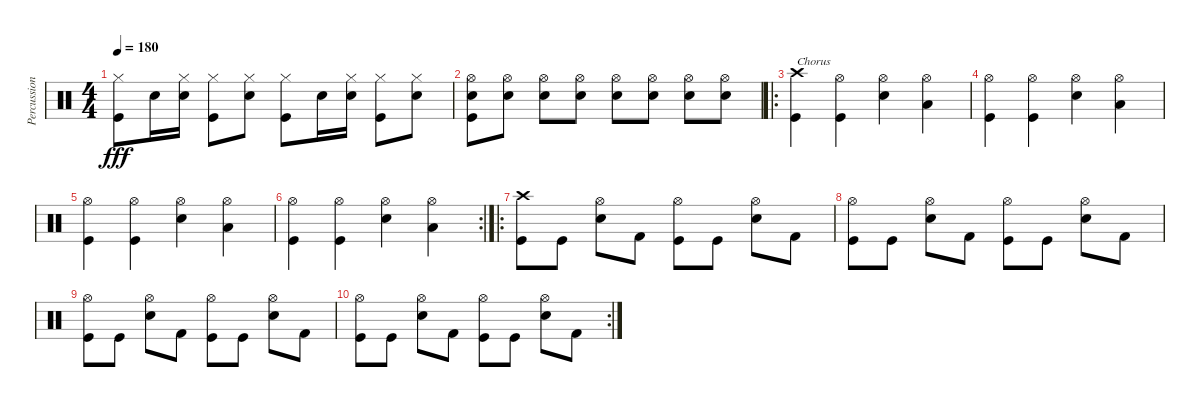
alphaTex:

\track ("Percussions" "Percussion") {instrument percussion}
\staff {score}
\articulation defaults
\ts (4 4)
\tempo 180
\clef neutral
\ks c
("Hi-Hat (closed)" "Kick (hit)").8{dy fff} "Electric Snare (hit)".16 ("Hi-Hat (closed)" "Electric Snare (hit)").16 ("Hi-Hat (closed)" "Kick (hit)").8 ("Hi-Hat (closed)" "Electric Snare (hit)").8 ("Hi-Hat (closed)" "Kick (hit)").8 "Electric Snare (hit)".16 ("Hi-Hat (closed)" "Electric Snare (hit)").16 ("Hi-Hat (closed)" "Kick (hit)").8 ("Hi-Hat (closed)" "Electric Snare (hit)").8 |
("Hi-Hat (open)" "Electric Snare (hit)" "Kick (hit)").8 ("Hi-Hat (open)" "Electric Snare (hit)").8 ("Hi-Hat (open)" "Electric Snare (hit)").8 ("Hi-Hat (open)" "Electric Snare (hit)").8 ("Hi-Hat (open)" "Electric Snare (hit)").8 ("Hi-Hat (open)" "Electric Snare (hit)").8 ("Hi-Hat (open)" "Electric Snare (hit)").8 ("Hi-Hat (open)" "Electric Snare (hit)").8 |
\ro
("Crash high (hit)" "Kick (hit)").4{txt "Chorus"} ("Hi-Hat (open)" "Kick (hit)").4 ("Hi-Hat (open)" "Electric Snare (hit)").4 ("Hi-Hat (open)" "Low Tom (hit)").4 |
("Hi-Hat (open)" "Kick (hit)").4 ("Hi-Hat (open)" "Kick (hit)").4 ("Hi-Hat (open)" "Electric Snare (hit)").4 ("Hi-Hat (open)" "Low Tom (hit)").4 |
("Hi-Hat (open)" "Kick (hit)").4 ("Hi-Hat (open)" "Kick (hit)").4 ("Hi-Hat (open)" "Electric Snare (hit)").4 ("Hi-Hat (open)" "Low Tom (hit)").4 |
\rc 2
("Hi-Hat (open)" "Kick (hit)").4 ("Hi-Hat (open)" "Kick (hit)").4 ("Hi-Hat (open)" "Electric Snare (hit)").4 ("Hi-Hat (open)" "Low Tom (hit)").4 |
\ro
("Crash high (hit)" "Kick (hit)").8 "Kick (hit)".8 ("Hi-Hat (open)" "Electric Snare (hit)").8 "Kick (hit) 2".8 ("Hi-Hat (open)" "Kick (hit)").8 "Kick (hit)".8 ("Hi-Hat (open)" "Electric Snare (hit)").8 "Kick (hit) 2".8 |
("Hi-Hat (open)" "Kick (hit)").8 "Kick (hit)".8 ("Hi-Hat (open)" "Electric Snare (hit)").8 "Kick (hit) 2".8 ("Hi-Hat (open)" "Kick (hit)").8 "Kick (hit)".8 ("Hi-Hat (open)" "Electric Snare (hit)").8 "Kick (hit) 2".8 |
("Hi-Hat (open)" "Kick (hit)").8 "Kick (hit)".8 ("Hi-Hat (open)" "Electric Snare (hit)").8 "Kick (hit) 2".8 ("Hi-Hat (open)" "Kick (hit)").8 "Kick (hit)".8 ("Hi-Hat (open)" "Electric Snare (hit)").8 "Kick (hit) 2".8 |
\rc 2
("Hi-Hat (open)" "Kick (hit)").8 "Kick (hit)".8 ("Hi-Hat (open)" "Electric Snare (hit)").8 "Kick (hit) 2".8 ("Hi-Hat (open)" "Kick (hit)").8 "Kick (hit)".8 ("Hi-Hat (open)" "Electric Snare (hit)").8 "Kick (hit) 2".8
